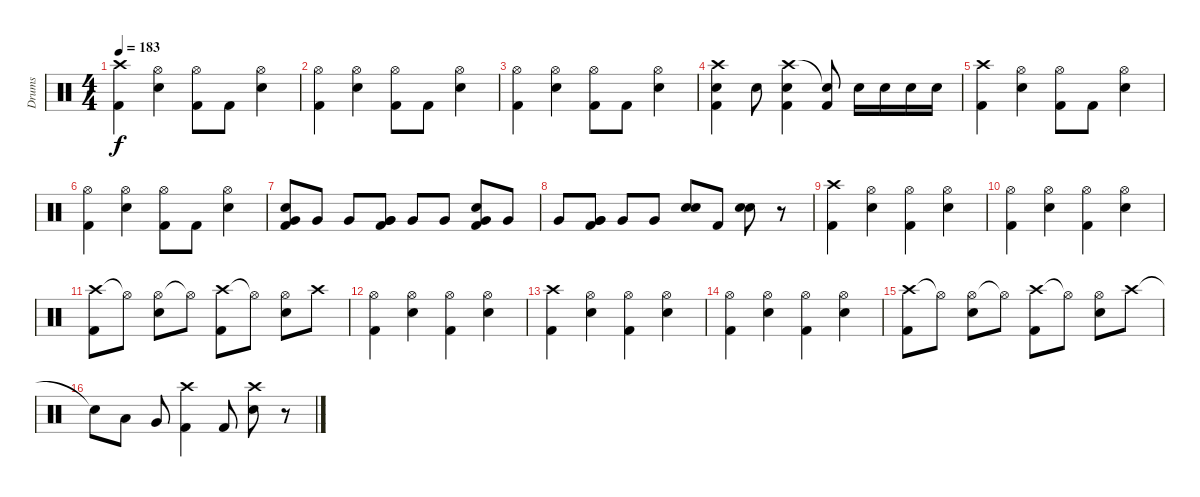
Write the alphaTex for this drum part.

\track ("Drums" "Drums") {instrument percussion}
\staff {score}
\articulation defaults
\ts (4 4)
\tempo 183
\clef neutral
\ks c
("Crash high (hit)" "Kick (hit) 2").4{dy f} ("Hi-Hat (open)" "Electric Snare (hit)").4 ("Hi-Hat (open)" "Kick (hit) 2").8 "Kick (hit) 2".8 ("Hi-Hat (open)" "Electric Snare (hit)").4 |
("Hi-Hat (open)" "Kick (hit) 2").4 ("Hi-Hat (open)" "Electric Snare (hit)").4 ("Hi-Hat (open)" "Kick (hit) 2").8 "Kick (hit) 2".8 ("Hi-Hat (open)" "Electric Snare (hit)").4 |
("Hi-Hat (open)" "Kick (hit) 2").4 ("Hi-Hat (open)" "Electric Snare (hit)").4 ("Hi-Hat (open)" "Kick (hit) 2").8 "Kick (hit) 2".8 ("Hi-Hat (open)" "Electric Snare (hit)").4 |
("Crash high (hit)" "Electric Snare (hit)" "Kick (hit) 2").4 "Electric Snare (hit)".8 ("Crash high (hit)" "Electric Snare (hit)" "Kick (hit) 2").4 ("Snare (hit)"{t} "Kick (hit) 2").8 "Electric Snare (hit)".16 "Electric Snare (hit)".16 "Electric Snare (hit)".16 "Electric Snare (hit)".16 |
("Crash high (hit)" "Kick (hit) 2").4 ("Hi-Hat (open)" "Electric Snare (hit)").4 ("Hi-Hat (open)" "Kick (hit) 2").8 "Kick (hit) 2".8 ("Hi-Hat (open)" "Electric Snare (hit)").4 |
("Hi-Hat (open)" "Kick (hit) 2").4 ("Hi-Hat (open)" "Electric Snare (hit)").4 ("Hi-Hat (open)" "Kick (hit) 2").8 "Kick (hit) 2".8 ("Hi-Hat (open)" "Electric Snare (hit)").4 |
("Very Low Tom (hit)" "Electric Snare (hit)" "Kick (hit) 2").8 "Very Low Tom (hit)".8 "Very Low Tom (hit)".8 ("Very Low Tom (hit)" "Very Low Tom (hit)" "Kick (hit) 2").8 "Very Low Tom (hit)".8 "Very Low Tom (hit)".8 ("Very Low Tom (hit)" "Electric Snare (hit)" "Kick (hit) 2").8 "Very Low Tom (hit)".8 |
"Very Low Tom (hit)".8 ("Very Low Tom (hit)" "Very Low Tom (hit)" "Kick (hit) 2").8 "Very Low Tom (hit)".8 "Very Low Tom (hit)".8 ("Electric Snare (hit)" "Electric Snare (hit)").8 "Kick (hit) 2".8 ("Electric Snare (hit)" "Electric Snare (hit)").8 r.8 |
("Crash high (hit)" "Kick (hit) 2").4 ("Hi-Hat (open)" "Electric Snare (hit)").4 ("Hi-Hat (open)" "Kick (hit) 2").4 ("Hi-Hat (open)" "Electric Snare (hit)").4 |
("Hi-Hat (open)" "Kick (hit) 2").4 ("Hi-Hat (open)" "Electric Snare (hit)").4 ("Hi-Hat (open)" "Kick (hit) 2").4 ("Hi-Hat (open)" "Electric Snare (hit)").4 |
("Crash high (hit)" "Kick (hit) 2").8 "Hi-Hat (open)"{t}.8 ("Hi-Hat (open)" "Electric Snare (hit)").8 "Hi-Hat (open)"{t}.8 ("Crash high (hit)" "Kick (hit) 2").8 "Hi-Hat (open)"{t}.8 ("Hi-Hat (open)" "Electric Snare (hit)").8 "Crash high (hit)".8 |
("Hi-Hat (open)" "Kick (hit) 2").4 ("Hi-Hat (open)" "Electric Snare (hit)").4 ("Hi-Hat (open)" "Kick (hit) 2").4 ("Hi-Hat (open)" "Electric Snare (hit)").4 |
("Crash high (hit)" "Kick (hit) 2").4 ("Hi-Hat (open)" "Electric Snare (hit)").4 ("Hi-Hat (open)" "Kick (hit) 2").4 ("Hi-Hat (open)" "Electric Snare (hit)").4 |
("Hi-Hat (open)" "Kick (hit) 2").4 ("Hi-Hat (open)" "Electric Snare (hit)").4 ("Hi-Hat (open)" "Kick (hit) 2").4 ("Hi-Hat (open)" "Electric Snare (hit)").4 |
("Crash high (hit)" "Kick (hit) 2").8 "Hi-Hat (open)"{t}.8 ("Hi-Hat (open)" "Electric Snare (hit)").8 "Hi-Hat (open)"{t}.8 ("Crash high (hit)" "Kick (hit) 2").8 "Hi-Hat (open)"{t}.8 ("Hi-Hat (open)" "Electric Snare (hit)").8 "Crash high (hit)".8 |
"Snare (hit)"{t}.8 "Low Tom (hit)".8 "Very Low Tom (hit)".8 ("Crash high (hit)" "Kick (hit) 2").4 "Kick (hit) 2".8 ("Crash high (hit)" "Electric Snare (hit)").8 r.8
